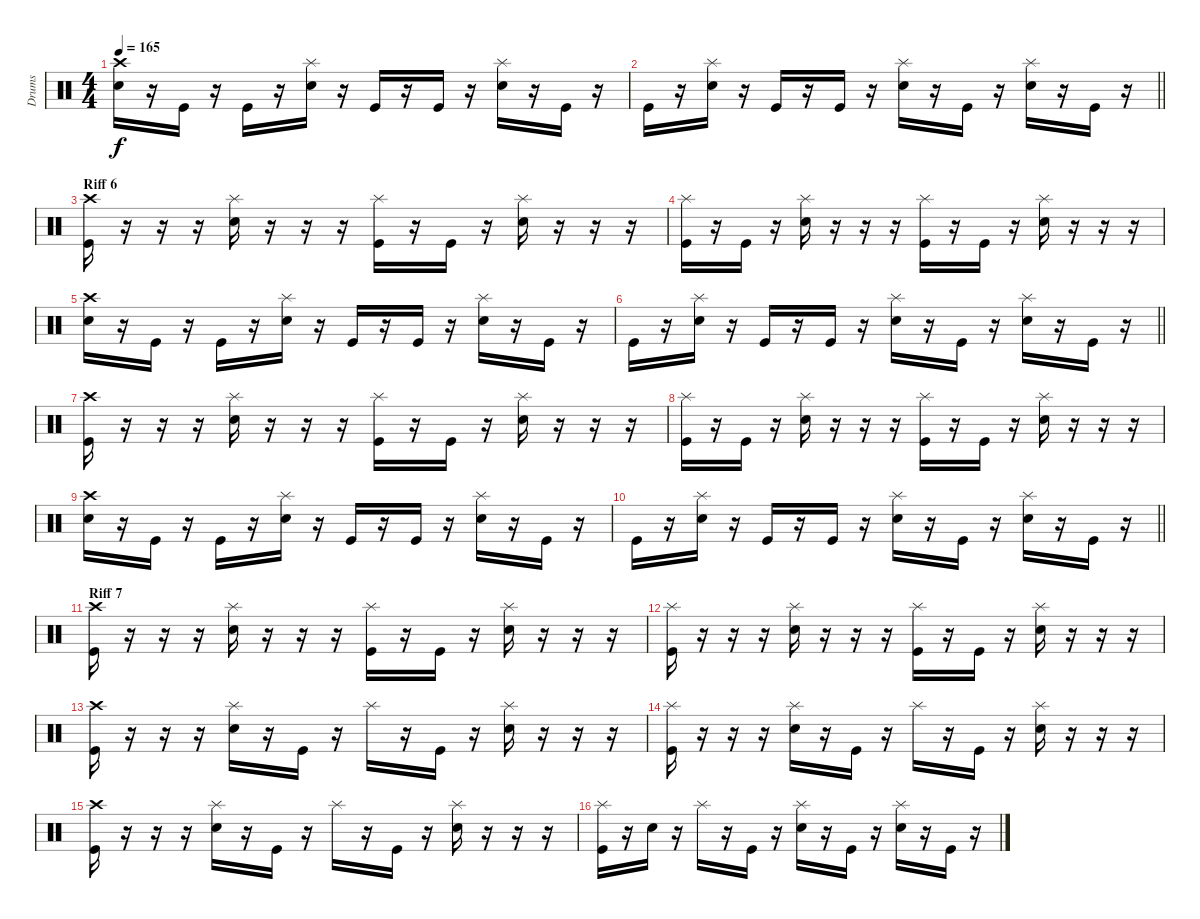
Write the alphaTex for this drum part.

\track ("Drums" "Drums") {instrument percussion}
\staff {score}
\articulation defaults
\ts (4 4)
\tempo 165
\clef neutral
\ks c
("Crash high (hit)" "Electric Snare (hit)").16{dy f} r.16 "Kick (hit)".16 r.16 "Kick (hit)".16 r.16 ("Splash (hit)" "Electric Snare (hit)").16 r.16 "Kick (hit)".16 r.16 "Kick (hit)".16 r.16 ("Splash (hit)" "Electric Snare (hit)").16 r.16 "Kick (hit)".16 r.16 |
\barLineRight lightlight "Kick (hit)".16
r.16 ("Splash (hit)" "Electric Snare (hit)").16 r.16 "Kick (hit)".16 r.16 "Kick (hit)".16 r.16 ("Splash (hit)" "Electric Snare (hit)").16 r.16 "Kick (hit)".16 r.16 ("Splash (hit)" "Electric Snare (hit)").16 r.16 "Kick (hit)".16 r.16 |
\section ("" "Riff 6")
("Crash high (hit)" "Kick (hit)").16 r.16 r.16 r.16 ("Splash (hit)" "Electric Snare (hit)").16 r.16 r.16 r.16 ("Splash (hit)" "Kick (hit)").16 r.16 "Kick (hit)".16 r.16 ("Splash (hit)" "Electric Snare (hit)").16 r.16 r.16 r.16 |
("Splash (hit)" "Kick (hit)").16 r.16 "Kick (hit)".16 r.16 ("Splash (hit)" "Electric Snare (hit)").16 r.16 r.16 r.16 ("Splash (hit)" "Kick (hit)").16 r.16 "Kick (hit)".16 r.16 ("Splash (hit)" "Electric Snare (hit)").16 r.16 r.16 r.16 |
("Crash high (hit)" "Electric Snare (hit)").16 r.16 "Kick (hit)".16 r.16 "Kick (hit)".16 r.16 ("Splash (hit)" "Electric Snare (hit)").16 r.16 "Kick (hit)".16 r.16 "Kick (hit)".16 r.16 ("Splash (hit)" "Electric Snare (hit)").16 r.16 "Kick (hit)".16 r.16 |
\barLineRight lightlight "Kick (hit)".16
r.16 ("Splash (hit)" "Electric Snare (hit)").16 r.16 "Kick (hit)".16 r.16 "Kick (hit)".16 r.16 ("Splash (hit)" "Electric Snare (hit)").16 r.16 "Kick (hit)".16 r.16 ("Splash (hit)" "Electric Snare (hit)").16 r.16 "Kick (hit)".16 r.16 |
("Crash high (hit)" "Kick (hit)").16 r.16 r.16 r.16 ("Splash (hit)" "Electric Snare (hit)").16 r.16 r.16 r.16 ("Splash (hit)" "Kick (hit)").16 r.16 "Kick (hit)".16 r.16 ("Splash (hit)" "Electric Snare (hit)").16 r.16 r.16 r.16 |
("Splash (hit)" "Kick (hit)").16 r.16 "Kick (hit)".16 r.16 ("Splash (hit)" "Electric Snare (hit)").16 r.16 r.16 r.16 ("Splash (hit)" "Kick (hit)").16 r.16 "Kick (hit)".16 r.16 ("Splash (hit)" "Electric Snare (hit)").16 r.16 r.16 r.16 |
("Crash high (hit)" "Electric Snare (hit)").16 r.16 "Kick (hit)".16 r.16 "Kick (hit)".16 r.16 ("Splash (hit)" "Electric Snare (hit)").16 r.16 "Kick (hit)".16 r.16 "Kick (hit)".16 r.16 ("Splash (hit)" "Electric Snare (hit)").16 r.16 "Kick (hit)".16 r.16 |
\barLineRight lightlight "Kick (hit)".16
r.16 ("Splash (hit)" "Electric Snare (hit)").16 r.16 "Kick (hit)".16 r.16 "Kick (hit)".16 r.16 ("Splash (hit)" "Electric Snare (hit)").16 r.16 "Kick (hit)".16 r.16 ("Splash (hit)" "Electric Snare (hit)").16 r.16 "Kick (hit)".16 r.16 |
\section ("" "Riff 7")
("Crash high (hit)" "Kick (hit)").16 r.16 r.16 r.16 ("Splash (hit)" "Electric Snare (hit)").16 r.16 r.16 r.16 ("Splash (hit)" "Kick (hit)").16 r.16 "Kick (hit)".16 r.16 ("Splash (hit)" "Electric Snare (hit)").16 r.16 r.16 r.16 |
("Splash (hit)" "Kick (hit)").16 r.16 r.16 r.16 ("Splash (hit)" "Electric Snare (hit)").16 r.16 r.16 r.16 ("Splash (hit)" "Kick (hit)").16 r.16 "Kick (hit)".16 r.16 ("Splash (hit)" "Electric Snare (hit)").16 r.16 r.16 r.16 |
("Crash high (hit)" "Kick (hit)").16 r.16 r.16 r.16 ("Splash (hit)" "Electric Snare (hit)").16 r.16 "Kick (hit)".16 r.16 "Splash (hit)".16 r.16 "Kick (hit)".16 r.16 ("Splash (hit)" "Electric Snare (hit)").16 r.16 r.16 r.16 |
("Splash (hit)" "Kick (hit)").16 r.16 r.16 r.16 ("Splash (hit)" "Electric Snare (hit)").16 r.16 "Kick (hit)".16 r.16 "Splash (hit)".16 r.16 "Kick (hit)".16 r.16 ("Splash (hit)" "Electric Snare (hit)").16 r.16 r.16 r.16 |
("Crash high (hit)" "Kick (hit)").16 r.16 r.16 r.16 ("Splash (hit)" "Electric Snare (hit)").16 r.16 "Kick (hit)".16 r.16 "Splash (hit)".16 r.16 "Kick (hit)".16 r.16 ("Splash (hit)" "Electric Snare (hit)").16 r.16 r.16 r.16 |
("Splash (hit)" "Kick (hit)").16 r.16 "Electric Snare (hit)".16 r.16 "Splash (hit)".16 r.16 "Kick (hit)".16 r.16 ("Splash (hit)" "Electric Snare (hit)").16 r.16 "Kick (hit)".16 r.16 ("Splash (hit)" "Electric Snare (hit)").16 r.16 "Kick (hit)".16 r.16
